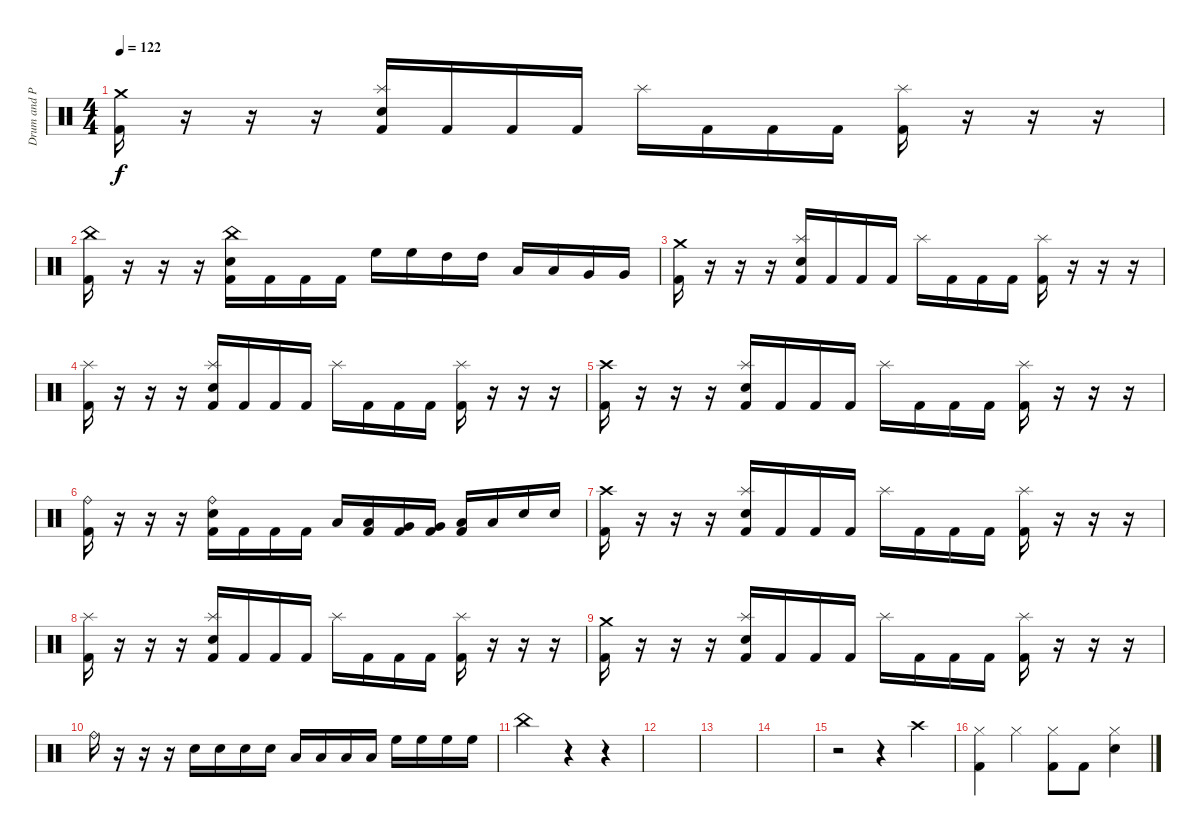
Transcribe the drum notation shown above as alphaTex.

\track ("Drum and Persscusian" "Drum and P") {instrument percussion}
\staff {score}
\articulation defaults
\ts (4 4)
\tempo 122
\clef neutral
\ks c
("Crash medium (hit)" "Kick (hit) 2").16{dy f} r.16 r.16 r.16 ("Splash (hit)" "Snare (hit) 2" "Kick (hit) 2").16 "Kick (hit) 2".16 "Kick (hit) 2".16 "Kick (hit) 2".16 "Splash (hit)".16 "Kick (hit) 2".16 "Kick (hit) 2".16 "Kick (hit) 2".16 ("Splash (hit)" "Kick (hit) 2").16 r.16 r.16 r.16 |
("China (hit)" "Kick (hit) 2").16 r.16 r.16 r.16 ("China (hit)" "Snare (hit) 2" "Kick (hit) 2").16 "Kick (hit) 2".16 "Kick (hit) 2".16 "Kick (hit) 2".16 "High Floor Tom (hit)".16 "High Floor Tom (hit)".16 "High Tom (hit)".16 "High Tom (hit)".16 "Low Tom (hit)".16 "Low Tom (hit)".16 "Very Low Tom (hit)".16 "Very Low Tom (hit)".16 |
("Crash medium (hit)" "Kick (hit) 2").16 r.16 r.16 r.16 ("Splash (hit)" "Snare (hit) 2" "Kick (hit) 2").16 "Kick (hit) 2".16 "Kick (hit) 2".16 "Kick (hit) 2".16 "Splash (hit)".16 "Kick (hit) 2".16 "Kick (hit) 2".16 "Kick (hit) 2".16 ("Splash (hit)" "Kick (hit) 2").16 r.16 r.16 r.16 |
("Splash (hit)" "Kick (hit) 2").16 r.16 r.16 r.16 ("Splash (hit)" "Snare (hit) 2" "Kick (hit) 2").16 "Kick (hit) 2".16 "Kick (hit) 2".16 "Kick (hit) 2".16 "Splash (hit)".16 "Kick (hit) 2".16 "Kick (hit) 2".16 "Kick (hit) 2".16 ("Splash (hit)" "Kick (hit) 2").16 r.16 r.16 r.16 |
("Crash high (hit)" "Kick (hit) 2").16 r.16 r.16 r.16 ("Splash (hit)" "Snare (hit) 2" "Kick (hit) 2").16 "Kick (hit) 2".16 "Kick (hit) 2".16 "Kick (hit) 2".16 "Splash (hit)".16 "Kick (hit) 2".16 "Kick (hit) 2".16 "Kick (hit) 2".16 ("Splash (hit)" "Kick (hit) 2").16 r.16 r.16 r.16 |
("Ride (bell)" "Kick (hit) 2").16 r.16 r.16 r.16 ("Ride (bell)" "Snare (hit) 2" "Kick (hit) 2").16 "Kick (hit) 2".16 "Kick (hit) 2".16 "Kick (hit) 2".16 "Low Floor Tom (hit)".16 ("Low Floor Tom (hit)" "Kick (hit) 2").16 ("Very Low Tom (hit)" "Kick (hit) 2").16 ("Very Low Tom (hit)" "Kick (hit) 2").16 ("Low Tom (hit)" "Kick (hit) 2").16 "Low Tom (hit)".16 "Snare (hit) 2".16 "Snare (hit) 2".16 |
("Crash high (hit)" "Kick (hit) 2").16 r.16 r.16 r.16 ("Splash (hit)" "Snare (hit) 2" "Kick (hit) 2").16 "Kick (hit) 2".16 "Kick (hit) 2".16 "Kick (hit) 2".16 "Splash (hit)".16 "Kick (hit) 2".16 "Kick (hit) 2".16 "Kick (hit) 2".16 ("Splash (hit)" "Kick (hit) 2").16 r.16 r.16 r.16 |
("Splash (hit)" "Kick (hit) 2").16 r.16 r.16 r.16 ("Splash (hit)" "Snare (hit) 2" "Kick (hit) 2").16 "Kick (hit) 2".16 "Kick (hit) 2".16 "Kick (hit) 2".16 "Splash (hit)".16 "Kick (hit) 2".16 "Kick (hit) 2".16 "Kick (hit) 2".16 ("Splash (hit)" "Kick (hit) 2").16 r.16 r.16 r.16 |
("Crash medium (hit)" "Kick (hit) 2").16 r.16 r.16 r.16 ("Splash (hit)" "Snare (hit) 2" "Kick (hit) 2").16 "Kick (hit) 2".16 "Kick (hit) 2".16 "Kick (hit) 2".16 "Splash (hit)".16 "Kick (hit) 2".16 "Kick (hit) 2".16 "Kick (hit) 2".16 ("Splash (hit)" "Kick (hit) 2").16 r.16 r.16 r.16 |
"Ride (bell)".16 r.16 r.16 r.16 "Snare (hit) 2".16 "Snare (hit) 2".16 "Snare (hit) 2".16 "Snare (hit) 2".16 "Low Tom (hit)".16 "Low Tom (hit)".16 "Low Tom (hit)".16 "Low Tom (hit)".16 "High Floor Tom (hit)".16 "High Floor Tom (hit)".16 "High Floor Tom (hit)".16 "High Floor Tom (hit)".16 |
"China (hit)".2 r.4 r.4 |
|
|
|
r.2 r.4 "Crash high (hit)".4 |
("Hi-Hat (closed)" "Kick (hit) 2").4 "Hi-Hat (closed)".4 ("Hi-Hat (closed)" "Kick (hit) 2").8 "Kick (hit) 2".8 ("Hi-Hat (closed)" "Snare (hit) 2").4
